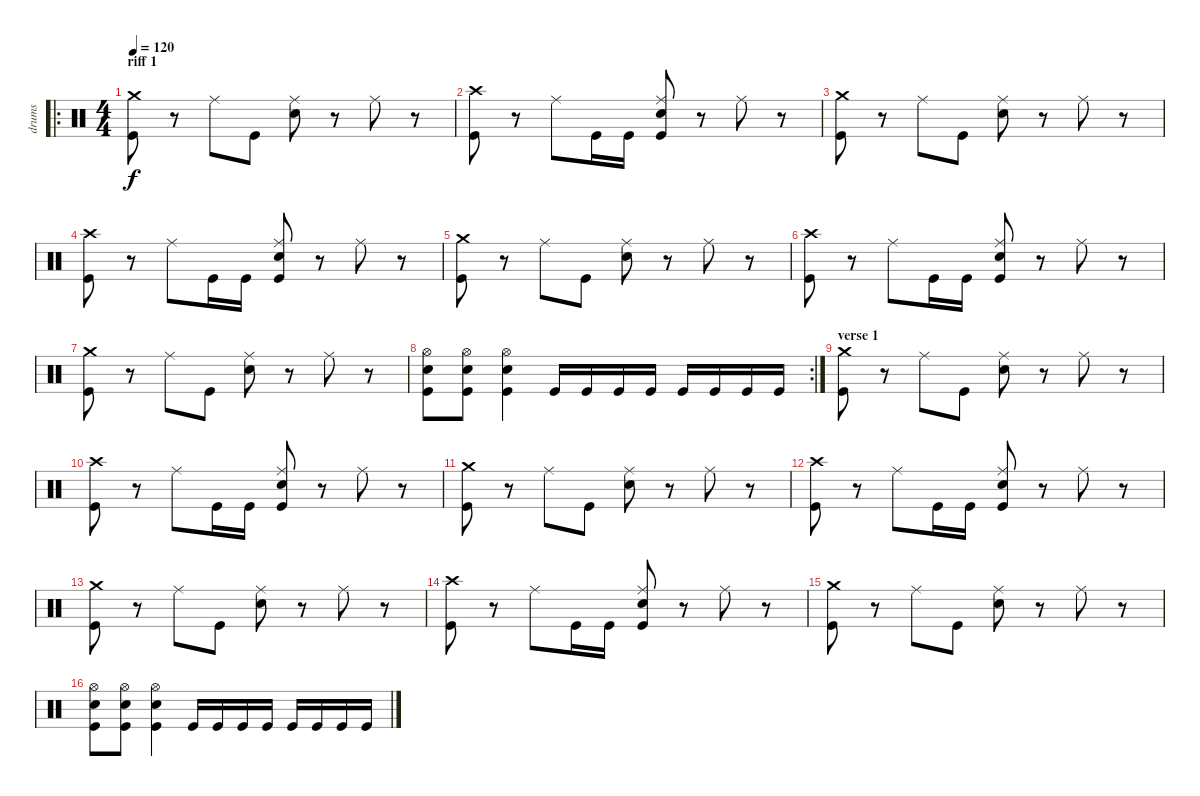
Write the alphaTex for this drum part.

\track ("drums" "drums") {instrument percussion}
\staff {score}
\articulation defaults
\ro
\ts (4 4)
\section ("" "riff 1")
\tempo 120
\clef neutral
\ks c
("Kick (hit)" "Crash medium (hit)").8{dy f} r.8 "Ride (middle)".8 "Kick (hit)".8 ("Snare (hit) 2" "Ride (middle)").8 r.8 "Ride (middle)".8 r.8 |
("Kick (hit)" "Crash high (hit)").8 r.8 "Ride (middle)".8 "Kick (hit)".16 "Kick (hit)".16 ("Kick (hit)" "Snare (hit) 2" "Ride (middle)").8 r.8 "Ride (middle)".8 r.8 |
("Kick (hit)" "Crash medium (hit)").8 r.8 "Ride (middle)".8 "Kick (hit)".8 ("Snare (hit) 2" "Ride (middle)").8 r.8 "Ride (middle)".8 r.8 |
("Kick (hit)" "Crash high (hit)").8 r.8 "Ride (middle)".8 "Kick (hit)".16 "Kick (hit)".16 ("Kick (hit)" "Snare (hit) 2" "Ride (middle)").8 r.8 "Ride (middle)".8 r.8 |
("Kick (hit)" "Crash medium (hit)").8 r.8 "Ride (middle)".8 "Kick (hit)".8 ("Snare (hit) 2" "Ride (middle)").8 r.8 "Ride (middle)".8 r.8 |
("Kick (hit)" "Crash high (hit)").8 r.8 "Ride (middle)".8 "Kick (hit)".16 "Kick (hit)".16 ("Kick (hit)" "Snare (hit) 2" "Ride (middle)").8 r.8 "Ride (middle)".8 r.8 |
("Kick (hit)" "Crash medium (hit)").8 r.8 "Ride (middle)".8 "Kick (hit)".8 ("Snare (hit) 2" "Ride (middle)").8 r.8 "Ride (middle)".8 r.8 |
\rc 2
("Kick (hit)" "Snare (hit) 2" "Hi-Hat (open)").8 ("Kick (hit)" "Snare (hit) 2" "Hi-Hat (open)").8 ("Kick (hit)" "Snare (hit) 2" "Hi-Hat (open)").4 "Kick (hit)".16 "Kick (hit)".16 "Kick (hit)".16 "Kick (hit)".16 "Kick (hit)".16 "Kick (hit)".16 "Kick (hit)".16 "Kick (hit)".16 |
\section ("" "verse 1")
("Kick (hit)" "Crash medium (hit)").8 r.8 "Ride (middle)".8 "Kick (hit)".8 ("Snare (hit) 2" "Ride (middle)").8 r.8 "Ride (middle)".8 r.8 |
("Kick (hit)" "Crash high (hit)").8 r.8 "Ride (middle)".8 "Kick (hit)".16 "Kick (hit)".16 ("Kick (hit)" "Snare (hit) 2" "Ride (middle)").8 r.8 "Ride (middle)".8 r.8 |
("Kick (hit)" "Crash medium (hit)").8 r.8 "Ride (middle)".8 "Kick (hit)".8 ("Snare (hit) 2" "Ride (middle)").8 r.8 "Ride (middle)".8 r.8 |
("Kick (hit)" "Crash high (hit)").8 r.8 "Ride (middle)".8 "Kick (hit)".16 "Kick (hit)".16 ("Kick (hit)" "Snare (hit) 2" "Ride (middle)").8 r.8 "Ride (middle)".8 r.8 |
("Kick (hit)" "Crash medium (hit)").8 r.8 "Ride (middle)".8 "Kick (hit)".8 ("Snare (hit) 2" "Ride (middle)").8 r.8 "Ride (middle)".8 r.8 |
("Kick (hit)" "Crash high (hit)").8 r.8 "Ride (middle)".8 "Kick (hit)".16 "Kick (hit)".16 ("Kick (hit)" "Snare (hit) 2" "Ride (middle)").8 r.8 "Ride (middle)".8 r.8 |
("Kick (hit)" "Crash medium (hit)").8 r.8 "Ride (middle)".8 "Kick (hit)".8 ("Snare (hit) 2" "Ride (middle)").8 r.8 "Ride (middle)".8 r.8 |
("Kick (hit)" "Snare (hit) 2" "Hi-Hat (open)").8 ("Kick (hit)" "Snare (hit) 2" "Hi-Hat (open)").8 ("Kick (hit)" "Snare (hit) 2" "Hi-Hat (open)").4 "Kick (hit)".16 "Kick (hit)".16 "Kick (hit)".16 "Kick (hit)".16 "Kick (hit)".16 "Kick (hit)".16 "Kick (hit)".16 "Kick (hit)".16
